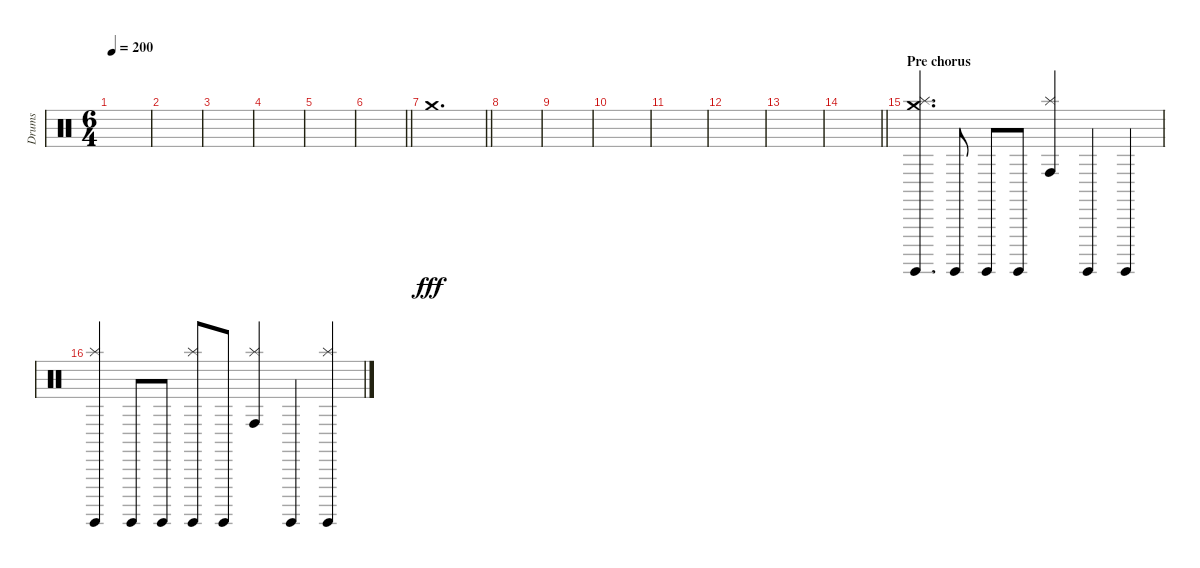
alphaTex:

\track ("Drums" "Drums") {instrument percussion}
\staff {score}
\articulation defaults
\ts (6 4)
\tempo 200
\clef neutral
\ks c
|
|
|
|
|
\barLineRight lightlight
|
\barLineRight lightlight "Crash medium (hit)".1{d dy fff}
|
|
|
|
|
|
|
\barLineRight lightlight
|
\section ("" "Pre chorus")
("Crash medium (hit)" "Splash (hit)" "Surdo (hit)").4{d} "Surdo (hit)".8 "Surdo (hit)".8 "Surdo (hit)".8 ("Splash (hit)" "Conga high (hit)").4 "Surdo (hit)".4 "Surdo (hit)".4 |
("Splash (hit)" "Surdo (hit)").4 "Surdo (hit)".8 "Surdo (hit)".8 ("Splash (hit)" "Surdo (hit)").8 "Surdo (hit)".8 ("Splash (hit)" "Conga high (hit)").4 "Surdo (hit)".4 ("Splash (hit)" "Surdo (hit)").4
